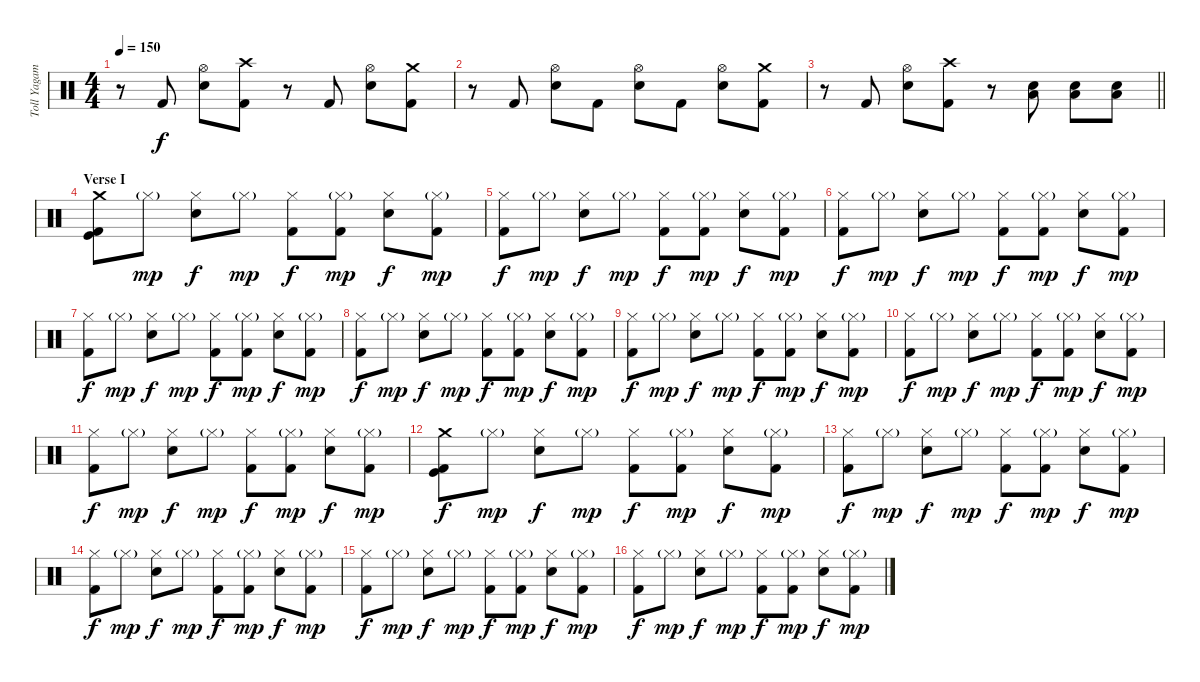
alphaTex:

\track ("Toll Yagami" "Toll Yagam") {instrument percussion}
\staff {score}
\articulation defaults
\ts (4 4)
\tempo 150
\clef neutral
\ks c
r.8{dy f} "Kick (hit) 2".8 ("Hi-Hat (open)" "Electric Snare (hit)").8 ("Crash high (hit)" "Kick (hit) 2").8 r.8 "Kick (hit) 2".8 ("Hi-Hat (open)" "Electric Snare (hit)").8 ("Crash medium (hit)" "Kick (hit) 2").8 |
r.8 "Kick (hit) 2".8 ("Hi-Hat (open)" "Electric Snare (hit)").8 "Kick (hit) 2".8 ("Hi-Hat (open)" "Electric Snare (hit)").8 "Kick (hit) 2".8 ("Hi-Hat (open)" "Electric Snare (hit)").8 ("Crash medium (hit)" "Kick (hit) 2").8 |
\barLineRight lightlight
r.8 "Kick (hit) 2".8 ("Hi-Hat (open)" "Electric Snare (hit)").8 ("Crash high (hit)" "Kick (hit) 2").8 r.8 ("Low Floor Tom (hit)" "Electric Snare (hit)").8 ("Low Floor Tom (hit)" "Electric Snare (hit)").8 ("Low Floor Tom (hit)" "Electric Snare (hit)").8 |
\section ("" "Verse I")
("Crash medium (hit)" "Kick (hit) 2" "Kick (hit)").8 "Hi-Hat (closed)"{g}.8{dy mp} ("Hi-Hat (closed)" "Electric Snare (hit)").8{dy f} "Hi-Hat (closed)"{g}.8{dy mp} ("Hi-Hat (closed)" "Kick (hit) 2").8{dy f} ("Hi-Hat (closed)"{g} "Kick (hit) 2").8{dy mp} ("Hi-Hat (closed)" "Electric Snare (hit)").8{dy f} ("Hi-Hat (closed)"{g} "Kick (hit) 2").8{dy mp} |
("Hi-Hat (closed)" "Kick (hit) 2").8{dy f} "Hi-Hat (closed)"{g}.8{dy mp} ("Hi-Hat (closed)" "Electric Snare (hit)").8{dy f} "Hi-Hat (closed)"{g}.8{dy mp} ("Hi-Hat (closed)" "Kick (hit) 2").8{dy f} ("Hi-Hat (closed)"{g} "Kick (hit) 2").8{dy mp} ("Hi-Hat (closed)" "Electric Snare (hit)").8{dy f} ("Hi-Hat (closed)"{g} "Kick (hit) 2").8{dy mp} |
("Hi-Hat (closed)" "Kick (hit) 2").8{dy f} "Hi-Hat (closed)"{g}.8{dy mp} ("Hi-Hat (closed)" "Electric Snare (hit)").8{dy f} "Hi-Hat (closed)"{g}.8{dy mp} ("Hi-Hat (closed)" "Kick (hit) 2").8{dy f} ("Hi-Hat (closed)"{g} "Kick (hit) 2").8{dy mp} ("Hi-Hat (closed)" "Electric Snare (hit)").8{dy f} ("Hi-Hat (closed)"{g} "Kick (hit) 2").8{dy mp} |
("Hi-Hat (closed)" "Kick (hit) 2").8{dy f} "Hi-Hat (closed)"{g}.8{dy mp} ("Hi-Hat (closed)" "Electric Snare (hit)").8{dy f} "Hi-Hat (closed)"{g}.8{dy mp} ("Hi-Hat (closed)" "Kick (hit) 2").8{dy f} ("Hi-Hat (closed)"{g} "Kick (hit) 2").8{dy mp} ("Hi-Hat (closed)" "Electric Snare (hit)").8{dy f} ("Hi-Hat (closed)"{g} "Kick (hit) 2").8{dy mp} |
("Hi-Hat (closed)" "Kick (hit) 2").8{dy f} "Hi-Hat (closed)"{g}.8{dy mp} ("Hi-Hat (closed)" "Electric Snare (hit)").8{dy f} "Hi-Hat (closed)"{g}.8{dy mp} ("Hi-Hat (closed)" "Kick (hit) 2").8{dy f} ("Hi-Hat (closed)"{g} "Kick (hit) 2").8{dy mp} ("Hi-Hat (closed)" "Electric Snare (hit)").8{dy f} ("Hi-Hat (closed)"{g} "Kick (hit) 2").8{dy mp} |
("Hi-Hat (closed)" "Kick (hit) 2").8{dy f} "Hi-Hat (closed)"{g}.8{dy mp} ("Hi-Hat (closed)" "Electric Snare (hit)").8{dy f} "Hi-Hat (closed)"{g}.8{dy mp} ("Hi-Hat (closed)" "Kick (hit) 2").8{dy f} ("Hi-Hat (closed)"{g} "Kick (hit) 2").8{dy mp} ("Hi-Hat (closed)" "Electric Snare (hit)").8{dy f} ("Hi-Hat (closed)"{g} "Kick (hit) 2").8{dy mp} |
("Hi-Hat (closed)" "Kick (hit) 2").8{dy f} "Hi-Hat (closed)"{g}.8{dy mp} ("Hi-Hat (closed)" "Electric Snare (hit)").8{dy f} "Hi-Hat (closed)"{g}.8{dy mp} ("Hi-Hat (closed)" "Kick (hit) 2").8{dy f} ("Hi-Hat (closed)"{g} "Kick (hit) 2").8{dy mp} ("Hi-Hat (closed)" "Electric Snare (hit)").8{dy f} ("Hi-Hat (closed)"{g} "Kick (hit) 2").8{dy mp} |
("Hi-Hat (closed)" "Kick (hit) 2").8{dy f} "Hi-Hat (closed)"{g}.8{dy mp} ("Hi-Hat (closed)" "Electric Snare (hit)").8{dy f} "Hi-Hat (closed)"{g}.8{dy mp} ("Hi-Hat (closed)" "Kick (hit) 2").8{dy f} ("Hi-Hat (closed)"{g} "Kick (hit) 2").8{dy mp} ("Hi-Hat (closed)" "Electric Snare (hit)").8{dy f} ("Hi-Hat (closed)"{g} "Kick (hit) 2").8{dy mp} |
("Crash medium (hit)" "Kick (hit) 2" "Kick (hit)").8{dy f} "Hi-Hat (closed)"{g}.8{dy mp} ("Hi-Hat (closed)" "Electric Snare (hit)").8{dy f} "Hi-Hat (closed)"{g}.8{dy mp} ("Hi-Hat (closed)" "Kick (hit) 2").8{dy f} ("Hi-Hat (closed)"{g} "Kick (hit) 2").8{dy mp} ("Hi-Hat (closed)" "Electric Snare (hit)").8{dy f} ("Hi-Hat (closed)"{g} "Kick (hit) 2").8{dy mp} |
("Hi-Hat (closed)" "Kick (hit) 2").8{dy f} "Hi-Hat (closed)"{g}.8{dy mp} ("Hi-Hat (closed)" "Electric Snare (hit)").8{dy f} "Hi-Hat (closed)"{g}.8{dy mp} ("Hi-Hat (closed)" "Kick (hit) 2").8{dy f} ("Hi-Hat (closed)"{g} "Kick (hit) 2").8{dy mp} ("Hi-Hat (closed)" "Electric Snare (hit)").8{dy f} ("Hi-Hat (closed)"{g} "Kick (hit) 2").8{dy mp} |
("Hi-Hat (closed)" "Kick (hit) 2").8{dy f} "Hi-Hat (closed)"{g}.8{dy mp} ("Hi-Hat (closed)" "Electric Snare (hit)").8{dy f} "Hi-Hat (closed)"{g}.8{dy mp} ("Hi-Hat (closed)" "Kick (hit) 2").8{dy f} ("Hi-Hat (closed)"{g} "Kick (hit) 2").8{dy mp} ("Hi-Hat (closed)" "Electric Snare (hit)").8{dy f} ("Hi-Hat (closed)"{g} "Kick (hit) 2").8{dy mp} |
("Hi-Hat (closed)" "Kick (hit) 2").8{dy f} "Hi-Hat (closed)"{g}.8{dy mp} ("Hi-Hat (closed)" "Electric Snare (hit)").8{dy f} "Hi-Hat (closed)"{g}.8{dy mp} ("Hi-Hat (closed)" "Kick (hit) 2").8{dy f} ("Hi-Hat (closed)"{g} "Kick (hit) 2").8{dy mp} ("Hi-Hat (closed)" "Electric Snare (hit)").8{dy f} ("Hi-Hat (closed)"{g} "Kick (hit) 2").8{dy mp} |
("Hi-Hat (closed)" "Kick (hit) 2").8{dy f} "Hi-Hat (closed)"{g}.8{dy mp} ("Hi-Hat (closed)" "Electric Snare (hit)").8{dy f} "Hi-Hat (closed)"{g}.8{dy mp} ("Hi-Hat (closed)" "Kick (hit) 2").8{dy f} ("Hi-Hat (closed)"{g} "Kick (hit) 2").8{dy mp} ("Hi-Hat (closed)" "Electric Snare (hit)").8{dy f} ("Hi-Hat (closed)"{g} "Kick (hit) 2").8{dy mp}
